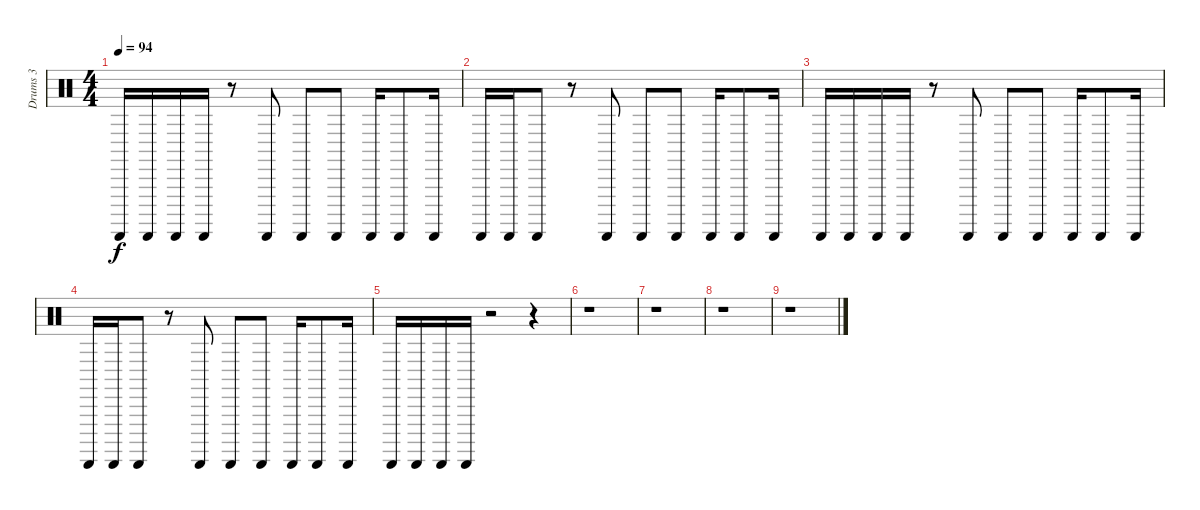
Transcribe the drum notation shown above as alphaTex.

\track ("Drums 3" "Drums 3") {instrument percussion}
\staff {score}
\articulation defaults
\ts (4 4)
\tempo 94
\clef neutral
\ks c "Guiro (scrap-return)".16{dy f} "Guiro (scrap-return)".16 "Guiro (scrap-return)".16 "Guiro (scrap-return)".16
r.8 "Guiro (scrap-return)".8 "Guiro (scrap-return)".8 "Guiro (scrap-return)".8 "Guiro (scrap-return)".16 "Guiro (scrap-return)".8 "Guiro (scrap-return)".16 |
"Guiro (scrap-return)".16 "Guiro (scrap-return)".16 "Guiro (scrap-return)".8 r.8 "Guiro (scrap-return)".8 "Guiro (scrap-return)".8 "Guiro (scrap-return)".8 "Guiro (scrap-return)".16 "Guiro (scrap-return)".8 "Guiro (scrap-return)".16 |
"Guiro (scrap-return)".16 "Guiro (scrap-return)".16 "Guiro (scrap-return)".16 "Guiro (scrap-return)".16 r.8 "Guiro (scrap-return)".8 "Guiro (scrap-return)".8 "Guiro (scrap-return)".8 "Guiro (scrap-return)".16 "Guiro (scrap-return)".8 "Guiro (scrap-return)".16 |
"Guiro (scrap-return)".16 "Guiro (scrap-return)".16 "Guiro (scrap-return)".8 r.8 "Guiro (scrap-return)".8 "Guiro (scrap-return)".8 "Guiro (scrap-return)".8 "Guiro (scrap-return)".16 "Guiro (scrap-return)".8 "Guiro (scrap-return)".16 |
"Guiro (scrap-return)".16 "Guiro (scrap-return)".16 "Guiro (scrap-return)".16 "Guiro (scrap-return)".16 r.2 r.4 |
r.1 |
r.1 |
r.1 |
r.1
